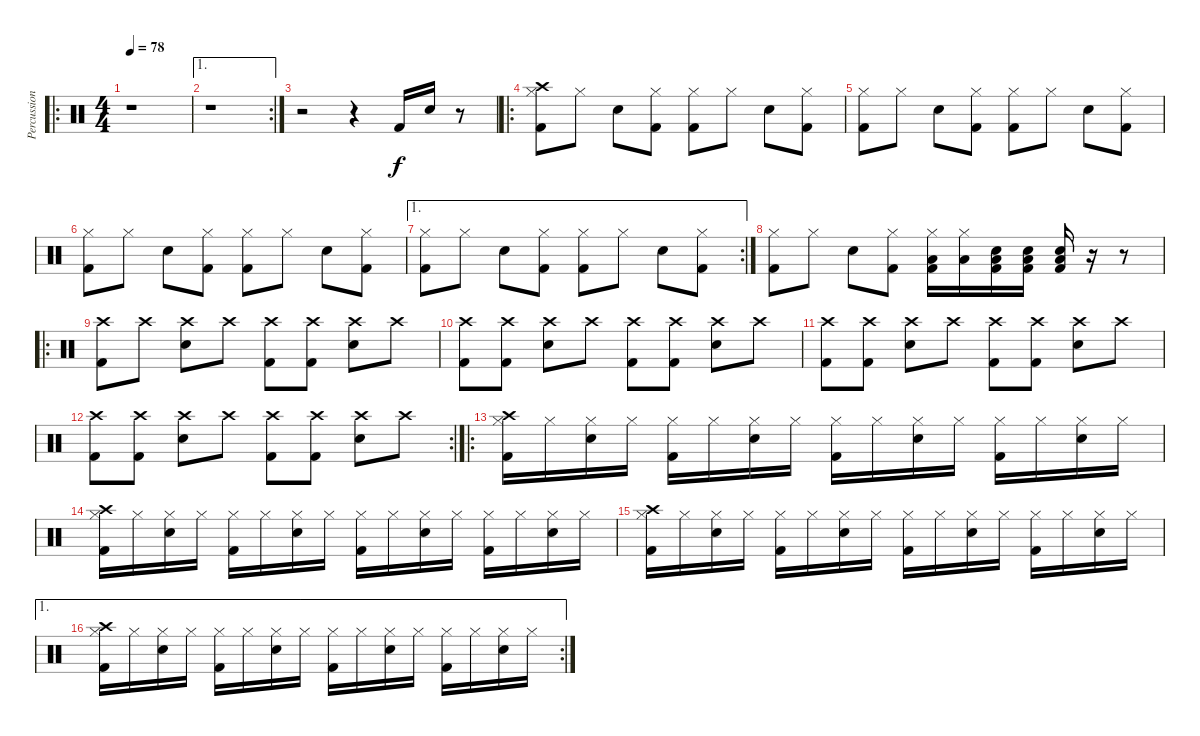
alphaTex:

\track ("Percussion" "Percussion") {instrument percussion}
\staff {score}
\articulation defaults
\ro
\ts (4 4)
\tempo 78
\clef neutral
\ks c
r.1{dy f} |
\ae 1
\rc 2
r.1 |
r.2 r.4 "Kick (hit) 2".16 "Snare (hit) 2".16 r.8 |
\ro
("Kick (hit) 2" "Crash high (hit)" "Hi-Hat (closed)").8 "Hi-Hat (closed)".8 "Snare (hit) 2".8 ("Kick (hit) 2" "Hi-Hat (closed)").8 ("Kick (hit) 2" "Hi-Hat (closed)").8 "Hi-Hat (closed)".8 "Snare (hit) 2".8 ("Kick (hit) 2" "Hi-Hat (closed)").8 |
("Kick (hit) 2" "Hi-Hat (closed)").8 "Hi-Hat (closed)".8 "Snare (hit) 2".8 ("Kick (hit) 2" "Hi-Hat (closed)").8 ("Kick (hit) 2" "Hi-Hat (closed)").8 "Hi-Hat (closed)".8 "Snare (hit) 2".8 ("Kick (hit) 2" "Hi-Hat (closed)").8 |
("Kick (hit) 2" "Hi-Hat (closed)").8 "Hi-Hat (closed)".8 "Snare (hit) 2".8 ("Kick (hit) 2" "Hi-Hat (closed)").8 ("Kick (hit) 2" "Hi-Hat (closed)").8 "Hi-Hat (closed)".8 "Snare (hit) 2".8 ("Kick (hit) 2" "Hi-Hat (closed)").8 |
\ae 1
\rc 2
("Kick (hit) 2" "Hi-Hat (closed)").8 "Hi-Hat (closed)".8 "Snare (hit) 2".8 ("Kick (hit) 2" "Hi-Hat (closed)").8 ("Kick (hit) 2" "Hi-Hat (closed)").8 "Hi-Hat (closed)".8 "Snare (hit) 2".8 ("Kick (hit) 2" "Hi-Hat (closed)").8 |
("Kick (hit) 2" "Hi-Hat (closed)").8 "Hi-Hat (closed)".8 "Snare (hit) 2".8 ("Kick (hit) 2" "Hi-Hat (closed)").8 ("Low Floor Tom (hit)" "Kick (hit) 2" "Hi-Hat (closed)").16 ("Low Floor Tom (hit)" "Hi-Hat (closed)").16 ("Low Floor Tom (hit)" "Snare (hit) 2" "Kick (hit) 2").16 ("Low Floor Tom (hit)" "Snare (hit) 2" "Kick (hit) 2").16 ("Low Floor Tom (hit)" "Snare (hit) 2" "Kick (hit) 2").16 r.16 r.8 |
\ro
("Kick (hit) 2" "Crash high (hit)").8 "Crash high (hit)".8 ("Snare (hit) 2" "Crash high (hit)").8 "Crash high (hit)".8 ("Kick (hit) 2" "Crash high (hit)").8 ("Kick (hit) 2" "Crash high (hit)").8 ("Snare (hit) 2" "Crash high (hit)").8 "Crash high (hit)".8 |
("Kick (hit) 2" "Crash high (hit)").8 ("Kick (hit) 2" "Crash high (hit)").8 ("Snare (hit) 2" "Crash high (hit)").8 "Crash high (hit)".8 ("Kick (hit) 2" "Crash high (hit)").8 ("Kick (hit) 2" "Crash high (hit)").8 ("Snare (hit) 2" "Crash high (hit)").8 "Crash high (hit)".8 |
("Kick (hit) 2" "Crash high (hit)").8 ("Kick (hit) 2" "Crash high (hit)").8 ("Snare (hit) 2" "Crash high (hit)").8 "Crash high (hit)".8 ("Kick (hit) 2" "Crash high (hit)").8 ("Kick (hit) 2" "Crash high (hit)").8 ("Snare (hit) 2" "Crash high (hit)").8 "Crash high (hit)".8 |
\rc 2
("Kick (hit) 2" "Crash high (hit)").8 ("Kick (hit) 2" "Crash high (hit)").8 ("Snare (hit) 2" "Crash high (hit)").8 "Crash high (hit)".8 ("Kick (hit) 2" "Crash high (hit)").8 ("Kick (hit) 2" "Crash high (hit)").8 ("Snare (hit) 2" "Crash high (hit)").8 "Crash high (hit)".8 |
\ro
("Kick (hit) 2" "Crash high (hit)" "Hi-Hat (closed)").16 "Hi-Hat (closed)".16 ("Snare (hit) 2" "Hi-Hat (closed)").16 "Hi-Hat (closed)".16 ("Kick (hit) 2" "Hi-Hat (closed)").16 "Hi-Hat (closed)".16 ("Snare (hit) 2" "Hi-Hat (closed)").16 "Hi-Hat (closed)".16 ("Kick (hit) 2" "Hi-Hat (closed)").16 "Hi-Hat (closed)".16 ("Snare (hit) 2" "Hi-Hat (closed)").16 "Hi-Hat (closed)".16 ("Kick (hit) 2" "Hi-Hat (closed)").16 "Hi-Hat (closed)".16 ("Snare (hit) 2" "Hi-Hat (closed)").16 "Hi-Hat (closed)".16 |
("Kick (hit) 2" "Crash high (hit)" "Hi-Hat (closed)").16 "Hi-Hat (closed)".16 ("Snare (hit) 2" "Hi-Hat (closed)").16 "Hi-Hat (closed)".16 ("Kick (hit) 2" "Hi-Hat (closed)").16 "Hi-Hat (closed)".16 ("Snare (hit) 2" "Hi-Hat (closed)").16 "Hi-Hat (closed)".16 ("Kick (hit) 2" "Hi-Hat (closed)").16 "Hi-Hat (closed)".16 ("Snare (hit) 2" "Hi-Hat (closed)").16 "Hi-Hat (closed)".16 ("Kick (hit) 2" "Hi-Hat (closed)").16 "Hi-Hat (closed)".16 ("Snare (hit) 2" "Hi-Hat (closed)").16 "Hi-Hat (closed)".16 |
("Kick (hit) 2" "Crash high (hit)" "Hi-Hat (closed)").16 "Hi-Hat (closed)".16 ("Snare (hit) 2" "Hi-Hat (closed)").16 "Hi-Hat (closed)".16 ("Kick (hit) 2" "Hi-Hat (closed)").16 "Hi-Hat (closed)".16 ("Snare (hit) 2" "Hi-Hat (closed)").16 "Hi-Hat (closed)".16 ("Kick (hit) 2" "Hi-Hat (closed)").16 "Hi-Hat (closed)".16 ("Snare (hit) 2" "Hi-Hat (closed)").16 "Hi-Hat (closed)".16 ("Kick (hit) 2" "Hi-Hat (closed)").16 "Hi-Hat (closed)".16 ("Snare (hit) 2" "Hi-Hat (closed)").16 "Hi-Hat (closed)".16 |
\ae 1
\rc 2
("Kick (hit) 2" "Crash high (hit)" "Hi-Hat (closed)").16 "Hi-Hat (closed)".16 ("Snare (hit) 2" "Hi-Hat (closed)").16 "Hi-Hat (closed)".16 ("Kick (hit) 2" "Hi-Hat (closed)").16 "Hi-Hat (closed)".16 ("Snare (hit) 2" "Hi-Hat (closed)").16 "Hi-Hat (closed)".16 ("Kick (hit) 2" "Hi-Hat (closed)").16 "Hi-Hat (closed)".16 ("Snare (hit) 2" "Hi-Hat (closed)").16 "Hi-Hat (closed)".16 ("Kick (hit) 2" "Hi-Hat (closed)").16 "Hi-Hat (closed)".16 ("Snare (hit) 2" "Hi-Hat (closed)").16 "Hi-Hat (closed)".16
